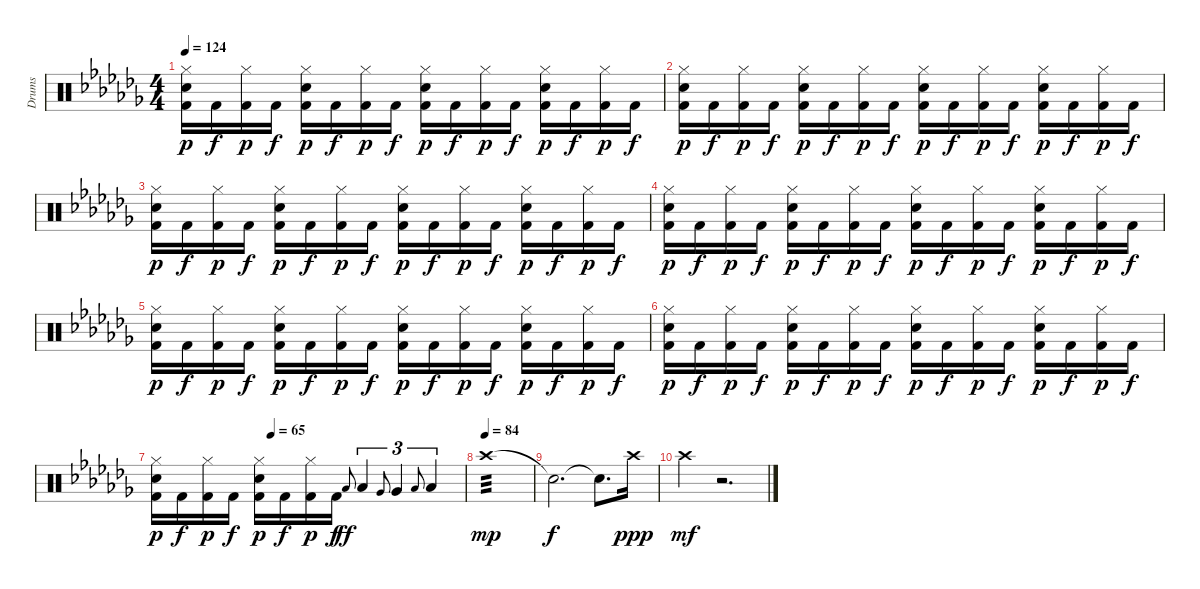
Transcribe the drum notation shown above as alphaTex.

\track ("Drums" "Drums") {instrument percussion}
\staff {score}
\articulation defaults
\ts (4 4)
\tempo 124
\clef neutral
\ks cb
("Hi-Hat (closed)" "Electric Snare (hit)" "Kick (hit) 2").16{dy p} "Kick (hit) 2".16{dy f} ("Hi-Hat (closed)" "Kick (hit) 2").16{dy p} "Kick (hit) 2".16{dy f} ("Hi-Hat (closed)" "Electric Snare (hit)" "Kick (hit) 2").16{dy p} "Kick (hit) 2".16{dy f} ("Hi-Hat (closed)" "Kick (hit) 2").16{dy p} "Kick (hit) 2".16{dy f} ("Hi-Hat (closed)" "Electric Snare (hit)" "Kick (hit) 2").16{dy p} "Kick (hit) 2".16{dy f} ("Hi-Hat (closed)" "Kick (hit) 2").16{dy p} "Kick (hit) 2".16{dy f} ("Hi-Hat (closed)" "Electric Snare (hit)" "Kick (hit) 2").16{dy p} "Kick (hit) 2".16{dy f} ("Hi-Hat (closed)" "Kick (hit) 2").16{dy p} "Kick (hit) 2".16{dy f} |
("Hi-Hat (closed)" "Electric Snare (hit)" "Kick (hit) 2").16{dy p} "Kick (hit) 2".16{dy f} ("Hi-Hat (closed)" "Kick (hit) 2").16{dy p} "Kick (hit) 2".16{dy f} ("Hi-Hat (closed)" "Electric Snare (hit)" "Kick (hit) 2").16{dy p} "Kick (hit) 2".16{dy f} ("Hi-Hat (closed)" "Kick (hit) 2").16{dy p} "Kick (hit) 2".16{dy f} ("Hi-Hat (closed)" "Electric Snare (hit)" "Kick (hit) 2").16{dy p} "Kick (hit) 2".16{dy f} ("Hi-Hat (closed)" "Kick (hit) 2").16{dy p} "Kick (hit) 2".16{dy f} ("Hi-Hat (closed)" "Electric Snare (hit)" "Kick (hit) 2").16{dy p} "Kick (hit) 2".16{dy f} ("Hi-Hat (closed)" "Kick (hit) 2").16{dy p} "Kick (hit) 2".16{dy f} |
("Hi-Hat (closed)" "Electric Snare (hit)" "Kick (hit) 2").16{dy p} "Kick (hit) 2".16{dy f} ("Hi-Hat (closed)" "Kick (hit) 2").16{dy p} "Kick (hit) 2".16{dy f} ("Hi-Hat (closed)" "Electric Snare (hit)" "Kick (hit) 2").16{dy p} "Kick (hit) 2".16{dy f} ("Hi-Hat (closed)" "Kick (hit) 2").16{dy p} "Kick (hit) 2".16{dy f} ("Hi-Hat (closed)" "Electric Snare (hit)" "Kick (hit) 2").16{dy p} "Kick (hit) 2".16{dy f} ("Hi-Hat (closed)" "Kick (hit) 2").16{dy p} "Kick (hit) 2".16{dy f} ("Hi-Hat (closed)" "Electric Snare (hit)" "Kick (hit) 2").16{dy p} "Kick (hit) 2".16{dy f} ("Hi-Hat (closed)" "Kick (hit) 2").16{dy p} "Kick (hit) 2".16{dy f} |
("Hi-Hat (closed)" "Electric Snare (hit)" "Kick (hit) 2").16{dy p} "Kick (hit) 2".16{dy f} ("Hi-Hat (closed)" "Kick (hit) 2").16{dy p} "Kick (hit) 2".16{dy f} ("Hi-Hat (closed)" "Electric Snare (hit)" "Kick (hit) 2").16{dy p} "Kick (hit) 2".16{dy f} ("Hi-Hat (closed)" "Kick (hit) 2").16{dy p} "Kick (hit) 2".16{dy f} ("Hi-Hat (closed)" "Electric Snare (hit)" "Kick (hit) 2").16{dy p} "Kick (hit) 2".16{dy f} ("Hi-Hat (closed)" "Kick (hit) 2").16{dy p} "Kick (hit) 2".16{dy f} ("Hi-Hat (closed)" "Electric Snare (hit)" "Kick (hit) 2").16{dy p} "Kick (hit) 2".16{dy f} ("Hi-Hat (closed)" "Kick (hit) 2").16{dy p} "Kick (hit) 2".16{dy f} |
("Hi-Hat (closed)" "Electric Snare (hit)" "Kick (hit) 2").16{dy p} "Kick (hit) 2".16{dy f} ("Hi-Hat (closed)" "Kick (hit) 2").16{dy p} "Kick (hit) 2".16{dy f} ("Hi-Hat (closed)" "Electric Snare (hit)" "Kick (hit) 2").16{dy p} "Kick (hit) 2".16{dy f} ("Hi-Hat (closed)" "Kick (hit) 2").16{dy p} "Kick (hit) 2".16{dy f} ("Hi-Hat (closed)" "Electric Snare (hit)" "Kick (hit) 2").16{dy p} "Kick (hit) 2".16{dy f} ("Hi-Hat (closed)" "Kick (hit) 2").16{dy p} "Kick (hit) 2".16{dy f} ("Hi-Hat (closed)" "Electric Snare (hit)" "Kick (hit) 2").16{dy p} "Kick (hit) 2".16{dy f} ("Hi-Hat (closed)" "Kick (hit) 2").16{dy p} "Kick (hit) 2".16{dy f} |
("Hi-Hat (closed)" "Electric Snare (hit)" "Kick (hit) 2").16{dy p} "Kick (hit) 2".16{dy f} ("Hi-Hat (closed)" "Kick (hit) 2").16{dy p} "Kick (hit) 2".16{dy f} ("Hi-Hat (closed)" "Electric Snare (hit)" "Kick (hit) 2").16{dy p} "Kick (hit) 2".16{dy f} ("Hi-Hat (closed)" "Kick (hit) 2").16{dy p} "Kick (hit) 2".16{dy f} ("Hi-Hat (closed)" "Electric Snare (hit)" "Kick (hit) 2").16{dy p} "Kick (hit) 2".16{dy f} ("Hi-Hat (closed)" "Kick (hit) 2").16{dy p} "Kick (hit) 2".16{dy f} ("Hi-Hat (closed)" "Electric Snare (hit)" "Kick (hit) 2").16{dy p} "Kick (hit) 2".16{dy f} ("Hi-Hat (closed)" "Kick (hit) 2").16{dy p} "Kick (hit) 2".16{dy f} |
\tempo (65 0.375)
("Hi-Hat (closed)" "Electric Snare (hit)" "Kick (hit) 2").16{dy p} "Kick (hit) 2".16{dy f} ("Hi-Hat (closed)" "Kick (hit) 2").16{dy p} "Kick (hit) 2".16{dy f} ("Hi-Hat (closed)" "Electric Snare (hit)" "Kick (hit) 2").16{dy p} "Kick (hit) 2".16{dy f} ("Hi-Hat (closed)" "Kick (hit) 2").16{dy p} "Kick (hit) 2".16{dy f} "Low Tom (hit)".8{gr onbeat dy ff} "Low Tom (hit)".4{tu (3 2)} "Very Low Tom (hit)".8{gr onbeat} "Very Low Tom (hit)".4{tu (3 2)} "Low Floor Tom (hit)".8{gr onbeat} "Low Floor Tom (hit)".4{tu (3 2)} |
\tempo (84)
"Crash high (hit)".1{tp 3 dy mp} |
"Snare (hit)"{t}.2{d dy f} "Snare (hit)"{t}.8{d} "Crash high (hit)".16{dy ppp} |
"Crash high (hit)".4{dy mf} r.2{d}
